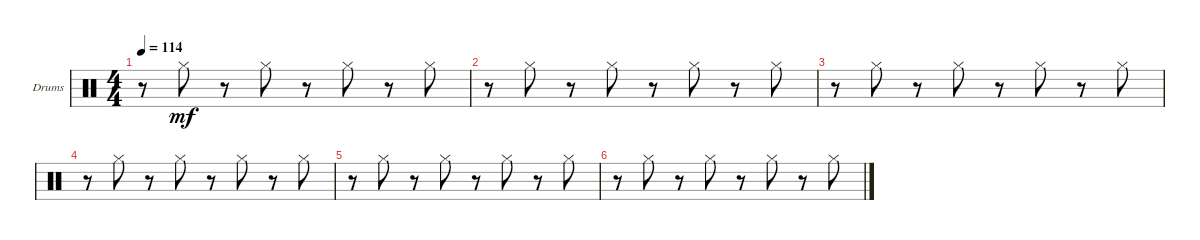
\defaultSystemsLayout 4
\bracketExtendMode groupsimilarinstruments
\firstSystemTrackNameOrientation horizontal
\otherSystemsTrackNameOrientation horizontal
\track ("Drumkit" "Drums") {instrument percussion}
\staff {score}
\articulation defaults
\ts (4 4)
\tempo 114
\clef neutral
\ks c
r.8{dy mf} "Hi-Hat (closed)".8 r.8 "Hi-Hat (closed)".8 r.8 "Hi-Hat (closed)".8 r.8 "Hi-Hat (closed)".8 |
r.8 "Hi-Hat (closed)".8 r.8 "Hi-Hat (closed)".8 r.8 "Hi-Hat (closed)".8 r.8 "Hi-Hat (closed)".8 |
r.8 "Hi-Hat (closed)".8 r.8 "Hi-Hat (closed)".8 r.8 "Hi-Hat (closed)".8 r.8 "Hi-Hat (closed)".8 |
r.8 "Hi-Hat (closed)".8 r.8 "Hi-Hat (closed)".8 r.8 "Hi-Hat (closed)".8 r.8 "Hi-Hat (closed)".8 |
r.8 "Hi-Hat (closed)".8 r.8 "Hi-Hat (closed)".8 r.8 "Hi-Hat (closed)".8 r.8 "Hi-Hat (closed)".8 |
r.8 "Hi-Hat (closed)".8 r.8 "Hi-Hat (closed)".8 r.8 "Hi-Hat (closed)".8 r.8 "Hi-Hat (closed)".8
